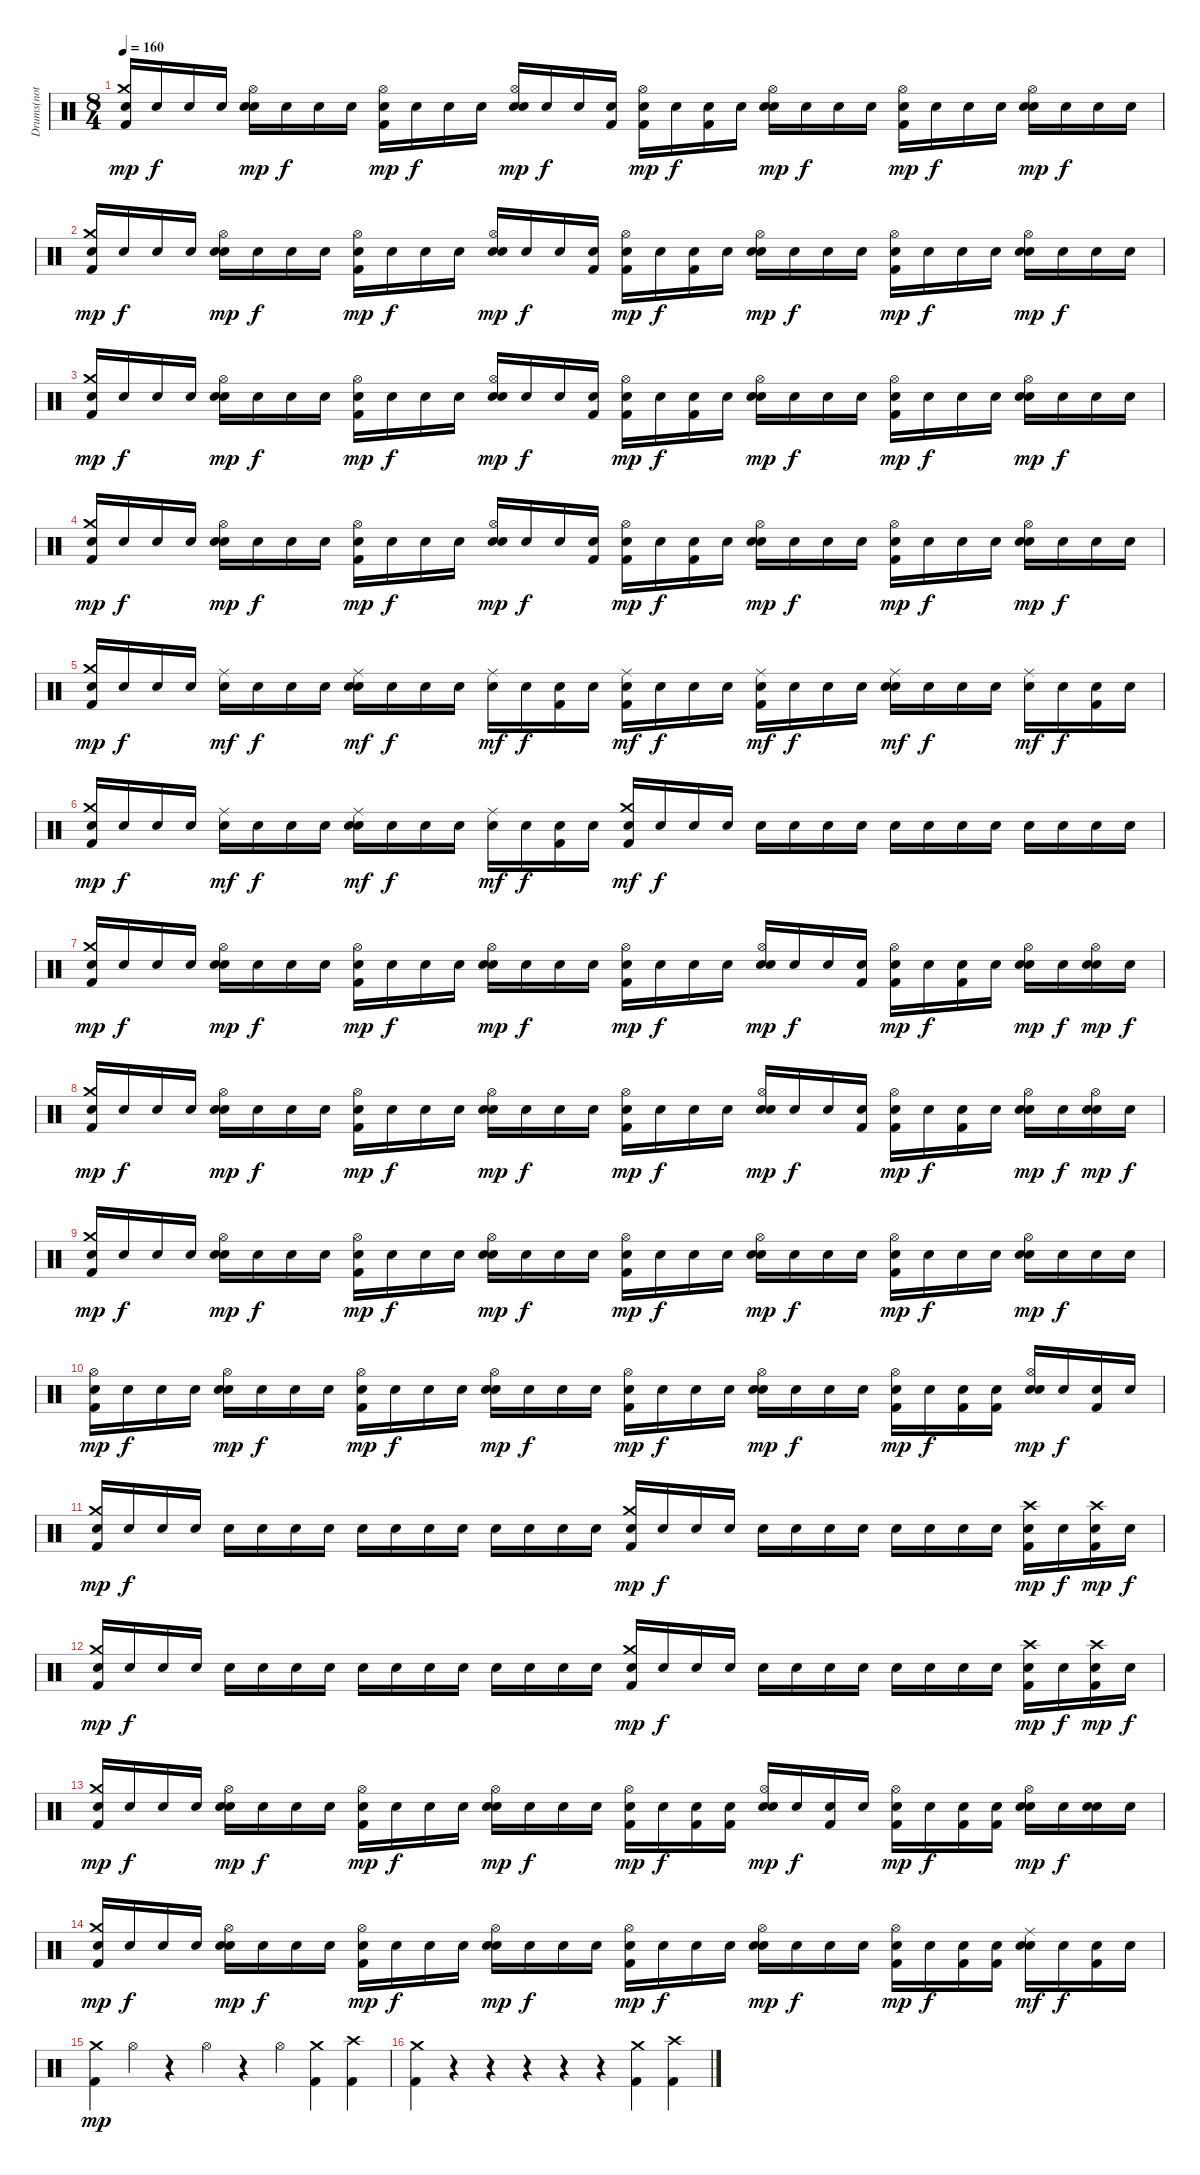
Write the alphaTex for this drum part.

\track ("Drums(not correct)" "Drums(not ") {instrument percussion}
\staff {score}
\articulation defaults
\ts (8 4)
\tempo 160
\clef neutral
\ks c
("Snare (hit)"{x} "Crash medium (hit)" "Kick (hit) 2").16{dy mp} "Snare (hit)"{x}.16{dy f} "Snare (hit)"{x}.16 "Snare (hit)"{x}.16 ("Snare (hit)"{x} "Hi-Hat (open)" "Electric Snare (hit)").16{dy mp} "Snare (hit)"{x}.16{dy f} "Snare (hit)"{x}.16 "Snare (hit)"{x}.16 ("Snare (hit)"{x} "Hi-Hat (open)" "Kick (hit) 2").16{dy mp} "Snare (hit)"{x}.16{dy f} "Snare (hit)"{x}.16 "Snare (hit)"{x}.16 ("Snare (hit)"{x} "Hi-Hat (open)" "Electric Snare (hit)").16{dy mp} "Snare (hit)"{x}.16{dy f} "Snare (hit)"{x}.16 ("Snare (hit)"{x} "Kick (hit) 2").16 ("Snare (hit)"{x} "Hi-Hat (open)" "Kick (hit) 2").16{dy mp} "Snare (hit)"{x}.16{dy f} ("Snare (hit)"{x} "Kick (hit) 2").16 "Snare (hit)"{x}.16 ("Snare (hit)"{x} "Hi-Hat (open)" "Electric Snare (hit)").16{dy mp} "Snare (hit)"{x}.16{dy f} "Snare (hit)"{x}.16 "Snare (hit)"{x}.16 ("Snare (hit)"{x} "Hi-Hat (open)" "Kick (hit) 2").16{dy mp} "Snare (hit)"{x}.16{dy f} "Snare (hit)"{x}.16 "Snare (hit)"{x}.16 ("Snare (hit)"{x} "Hi-Hat (open)" "Electric Snare (hit)").16{dy mp} "Snare (hit)"{x}.16{dy f} "Snare (hit)"{x}.16 "Snare (hit)"{x}.16 |
("Snare (hit)"{x} "Crash medium (hit)" "Kick (hit) 2").16{dy mp} "Snare (hit)"{x}.16{dy f} "Snare (hit)"{x}.16 "Snare (hit)"{x}.16 ("Snare (hit)"{x} "Hi-Hat (open)" "Electric Snare (hit)").16{dy mp} "Snare (hit)"{x}.16{dy f} "Snare (hit)"{x}.16 "Snare (hit)"{x}.16 ("Snare (hit)"{x} "Hi-Hat (open)" "Kick (hit) 2").16{dy mp} "Snare (hit)"{x}.16{dy f} "Snare (hit)"{x}.16 "Snare (hit)"{x}.16 ("Snare (hit)"{x} "Hi-Hat (open)" "Electric Snare (hit)").16{dy mp} "Snare (hit)"{x}.16{dy f} "Snare (hit)"{x}.16 ("Snare (hit)"{x} "Kick (hit) 2").16 ("Snare (hit)"{x} "Hi-Hat (open)" "Kick (hit) 2").16{dy mp} "Snare (hit)"{x}.16{dy f} ("Snare (hit)"{x} "Kick (hit) 2").16 "Snare (hit)"{x}.16 ("Snare (hit)"{x} "Hi-Hat (open)" "Electric Snare (hit)").16{dy mp} "Snare (hit)"{x}.16{dy f} "Snare (hit)"{x}.16 "Snare (hit)"{x}.16 ("Snare (hit)"{x} "Hi-Hat (open)" "Kick (hit) 2").16{dy mp} "Snare (hit)"{x}.16{dy f} "Snare (hit)"{x}.16 "Snare (hit)"{x}.16 ("Snare (hit)"{x} "Hi-Hat (open)" "Electric Snare (hit)").16{dy mp} "Snare (hit)"{x}.16{dy f} "Snare (hit)"{x}.16 "Snare (hit)"{x}.16 |
("Snare (hit)"{x} "Crash medium (hit)" "Kick (hit) 2").16{dy mp} "Snare (hit)"{x}.16{dy f} "Snare (hit)"{x}.16 "Snare (hit)"{x}.16 ("Snare (hit)"{x} "Hi-Hat (open)" "Electric Snare (hit)").16{dy mp} "Snare (hit)"{x}.16{dy f} "Snare (hit)"{x}.16 "Snare (hit)"{x}.16 ("Snare (hit)"{x} "Hi-Hat (open)" "Kick (hit) 2").16{dy mp} "Snare (hit)"{x}.16{dy f} "Snare (hit)"{x}.16 "Snare (hit)"{x}.16 ("Snare (hit)"{x} "Hi-Hat (open)" "Electric Snare (hit)").16{dy mp} "Snare (hit)"{x}.16{dy f} "Snare (hit)"{x}.16 ("Snare (hit)"{x} "Kick (hit) 2").16 ("Snare (hit)"{x} "Hi-Hat (open)" "Kick (hit) 2").16{dy mp} "Snare (hit)"{x}.16{dy f} ("Snare (hit)"{x} "Kick (hit) 2").16 "Snare (hit)"{x}.16 ("Snare (hit)"{x} "Hi-Hat (open)" "Electric Snare (hit)").16{dy mp} "Snare (hit)"{x}.16{dy f} "Snare (hit)"{x}.16 "Snare (hit)"{x}.16 ("Snare (hit)"{x} "Hi-Hat (open)" "Kick (hit) 2").16{dy mp} "Snare (hit)"{x}.16{dy f} "Snare (hit)"{x}.16 "Snare (hit)"{x}.16 ("Snare (hit)"{x} "Hi-Hat (open)" "Electric Snare (hit)").16{dy mp} "Snare (hit)"{x}.16{dy f} "Snare (hit)"{x}.16 "Snare (hit)"{x}.16 |
("Snare (hit)"{x} "Crash medium (hit)" "Kick (hit) 2").16{dy mp} "Snare (hit)"{x}.16{dy f} "Snare (hit)"{x}.16 "Snare (hit)"{x}.16 ("Snare (hit)"{x} "Hi-Hat (open)" "Electric Snare (hit)").16{dy mp} "Snare (hit)"{x}.16{dy f} "Snare (hit)"{x}.16 "Snare (hit)"{x}.16 ("Snare (hit)"{x} "Hi-Hat (open)" "Kick (hit) 2").16{dy mp} "Snare (hit)"{x}.16{dy f} "Snare (hit)"{x}.16 "Snare (hit)"{x}.16 ("Snare (hit)"{x} "Hi-Hat (open)" "Electric Snare (hit)").16{dy mp} "Snare (hit)"{x}.16{dy f} "Snare (hit)"{x}.16 ("Snare (hit)"{x} "Kick (hit) 2").16 ("Snare (hit)"{x} "Hi-Hat (open)" "Kick (hit) 2").16{dy mp} "Snare (hit)"{x}.16{dy f} ("Snare (hit)"{x} "Kick (hit) 2").16 "Snare (hit)"{x}.16 ("Snare (hit)"{x} "Hi-Hat (open)" "Electric Snare (hit)").16{dy mp} "Snare (hit)"{x}.16{dy f} "Snare (hit)"{x}.16 "Snare (hit)"{x}.16 ("Snare (hit)"{x} "Hi-Hat (open)" "Kick (hit) 2").16{dy mp} "Snare (hit)"{x}.16{dy f} "Snare (hit)"{x}.16 "Snare (hit)"{x}.16 ("Snare (hit)"{x} "Hi-Hat (open)" "Electric Snare (hit)").16{dy mp} "Snare (hit)"{x}.16{dy f} "Snare (hit)"{x}.16 "Snare (hit)"{x}.16 |
("Snare (hit)"{x} "Crash medium (hit)" "Kick (hit) 2").16{dy mp} "Snare (hit)"{x}.16{dy f} "Snare (hit)"{x}.16 "Snare (hit)"{x}.16 ("Snare (hit)"{x} "Ride (middle)").16{dy mf} "Snare (hit)"{x}.16{dy f} "Snare (hit)"{x}.16 "Snare (hit)"{x}.16 ("Snare (hit)"{x} "Ride (middle)" "Electric Snare (hit)").16{dy mf} "Snare (hit)"{x}.16{dy f} "Snare (hit)"{x}.16 "Snare (hit)"{x}.16 ("Snare (hit)"{x} "Ride (middle)").16{dy mf} "Snare (hit)"{x}.16{dy f} ("Snare (hit)"{x} "Kick (hit) 2").16 "Snare (hit)"{x}.16 ("Snare (hit)"{x} "Ride (middle)" "Kick (hit) 2").16{dy mf} "Snare (hit)"{x}.16{dy f} "Snare (hit)"{x}.16 "Snare (hit)"{x}.16 ("Snare (hit)"{x} "Ride (middle)" "Kick (hit) 2").16{dy mf} "Snare (hit)"{x}.16{dy f} "Snare (hit)"{x}.16 "Snare (hit)"{x}.16 ("Snare (hit)"{x} "Ride (middle)" "Electric Snare (hit)").16{dy mf} "Snare (hit)"{x}.16{dy f} "Snare (hit)"{x}.16 "Snare (hit)"{x}.16 ("Snare (hit)"{x} "Ride (middle)").16{dy mf} "Snare (hit)"{x}.16{dy f} ("Snare (hit)"{x} "Kick (hit) 2").16 "Snare (hit)"{x}.16 |
("Snare (hit)"{x} "Crash medium (hit)" "Kick (hit) 2").16{dy mp} "Snare (hit)"{x}.16{dy f} "Snare (hit)"{x}.16 "Snare (hit)"{x}.16 ("Snare (hit)"{x} "Ride (middle)").16{dy mf} "Snare (hit)"{x}.16{dy f} "Snare (hit)"{x}.16 "Snare (hit)"{x}.16 ("Snare (hit)"{x} "Ride (middle)" "Electric Snare (hit)").16{dy mf} "Snare (hit)"{x}.16{dy f} "Snare (hit)"{x}.16 "Snare (hit)"{x}.16 ("Snare (hit)"{x} "Ride (middle)").16{dy mf} "Snare (hit)"{x}.16{dy f} ("Snare (hit)"{x} "Kick (hit) 2").16 "Snare (hit)"{x}.16 ("Snare (hit)"{x} "Crash medium (hit)" "Kick (hit) 2").16{dy mf} "Snare (hit)"{x}.16{dy f} "Snare (hit)"{x}.16 "Snare (hit)"{x}.16 "Snare (hit)"{x}.16 "Snare (hit)"{x}.16 "Snare (hit)"{x}.16 "Snare (hit)"{x}.16 "Snare (hit)"{x}.16 "Snare (hit)"{x}.16 "Snare (hit)"{x}.16 "Snare (hit)"{x}.16 "Snare (hit)"{x}.16 "Snare (hit)"{x}.16 "Snare (hit)"{x}.16 "Snare (hit)"{x}.16 |
("Snare (hit)"{x} "Crash medium (hit)" "Kick (hit) 2").16{dy mp} "Snare (hit)"{x}.16{dy f} "Snare (hit)"{x}.16 "Snare (hit)"{x}.16 ("Snare (hit)"{x} "Hi-Hat (open)" "Electric Snare (hit)").16{dy mp} "Snare (hit)"{x}.16{dy f} "Snare (hit)"{x}.16 "Snare (hit)"{x}.16 ("Snare (hit)"{x} "Hi-Hat (open)" "Kick (hit) 2").16{dy mp} "Snare (hit)"{x}.16{dy f} "Snare (hit)"{x}.16 "Snare (hit)"{x}.16 ("Snare (hit)"{x} "Hi-Hat (open)" "Electric Snare (hit)").16{dy mp} "Snare (hit)"{x}.16{dy f} "Snare (hit)"{x}.16 "Snare (hit)"{x}.16 ("Snare (hit)"{x} "Hi-Hat (open)" "Kick (hit) 2").16{dy mp} "Snare (hit)"{x}.16{dy f} "Snare (hit)"{x}.16 "Snare (hit)"{x}.16 ("Snare (hit)"{x} "Hi-Hat (open)" "Electric Snare (hit)").16{dy mp} "Snare (hit)"{x}.16{dy f} "Snare (hit)"{x}.16 ("Snare (hit)"{x} "Kick (hit) 2").16 ("Snare (hit)"{x} "Hi-Hat (open)" "Kick (hit) 2").16{dy mp} "Snare (hit)"{x}.16{dy f} ("Snare (hit)"{x} "Kick (hit) 2").16 "Snare (hit)"{x}.16 ("Snare (hit)"{x} "Hi-Hat (open)" "Electric Snare (hit)").16{dy mp} "Snare (hit)"{x}.16{dy f} ("Snare (hit)"{x} "Hi-Hat (open)" "Electric Snare (hit)").16{dy mp} "Snare (hit)"{x}.16{dy f} |
("Snare (hit)"{x} "Crash medium (hit)" "Kick (hit) 2").16{dy mp} "Snare (hit)"{x}.16{dy f} "Snare (hit)"{x}.16 "Snare (hit)"{x}.16 ("Snare (hit)"{x} "Hi-Hat (open)" "Electric Snare (hit)").16{dy mp} "Snare (hit)"{x}.16{dy f} "Snare (hit)"{x}.16 "Snare (hit)"{x}.16 ("Snare (hit)"{x} "Hi-Hat (open)" "Kick (hit) 2").16{dy mp} "Snare (hit)"{x}.16{dy f} "Snare (hit)"{x}.16 "Snare (hit)"{x}.16 ("Snare (hit)"{x} "Hi-Hat (open)" "Electric Snare (hit)").16{dy mp} "Snare (hit)"{x}.16{dy f} "Snare (hit)"{x}.16 "Snare (hit)"{x}.16 ("Snare (hit)"{x} "Hi-Hat (open)" "Kick (hit) 2").16{dy mp} "Snare (hit)"{x}.16{dy f} "Snare (hit)"{x}.16 "Snare (hit)"{x}.16 ("Snare (hit)"{x} "Hi-Hat (open)" "Electric Snare (hit)").16{dy mp} "Snare (hit)"{x}.16{dy f} "Snare (hit)"{x}.16 ("Snare (hit)"{x} "Kick (hit) 2").16 ("Snare (hit)"{x} "Hi-Hat (open)" "Kick (hit) 2").16{dy mp} "Snare (hit)"{x}.16{dy f} ("Snare (hit)"{x} "Kick (hit) 2").16 "Snare (hit)"{x}.16 ("Snare (hit)"{x} "Hi-Hat (open)" "Electric Snare (hit)").16{dy mp} "Snare (hit)"{x}.16{dy f} ("Snare (hit)"{x} "Hi-Hat (open)" "Electric Snare (hit)").16{dy mp} "Snare (hit)"{x}.16{dy f} |
("Snare (hit)"{x} "Crash medium (hit)" "Kick (hit) 2").16{dy mp} "Snare (hit)"{x}.16{dy f} "Snare (hit)"{x}.16 "Snare (hit)"{x}.16 ("Snare (hit)"{x} "Hi-Hat (open)" "Electric Snare (hit)").16{dy mp} "Snare (hit)"{x}.16{dy f} "Snare (hit)"{x}.16 "Snare (hit)"{x}.16 ("Snare (hit)"{x} "Hi-Hat (open)" "Kick (hit) 2").16{dy mp} "Snare (hit)"{x}.16{dy f} "Snare (hit)"{x}.16 "Snare (hit)"{x}.16 ("Snare (hit)"{x} "Hi-Hat (open)" "Electric Snare (hit)").16{dy mp} "Snare (hit)"{x}.16{dy f} "Snare (hit)"{x}.16 "Snare (hit)"{x}.16 ("Snare (hit)"{x} "Hi-Hat (open)" "Kick (hit) 2").16{dy mp} "Snare (hit)"{x}.16{dy f} "Snare (hit)"{x}.16 "Snare (hit)"{x}.16 ("Snare (hit)"{x} "Hi-Hat (open)" "Electric Snare (hit)").16{dy mp} "Snare (hit)"{x}.16{dy f} "Snare (hit)"{x}.16 "Snare (hit)"{x}.16 ("Snare (hit)"{x} "Hi-Hat (open)" "Kick (hit) 2").16{dy mp} "Snare (hit)"{x}.16{dy f} "Snare (hit)"{x}.16 "Snare (hit)"{x}.16 ("Snare (hit)"{x} "Hi-Hat (open)" "Electric Snare (hit)").16{dy mp} "Snare (hit)"{x}.16{dy f} "Snare (hit)"{x}.16 "Snare (hit)"{x}.16 |
("Snare (hit)"{x} "Hi-Hat (open)" "Kick (hit) 2").16{dy mp} "Snare (hit)"{x}.16{dy f} "Snare (hit)"{x}.16 "Snare (hit)"{x}.16 ("Snare (hit)"{x} "Hi-Hat (open)" "Electric Snare (hit)").16{dy mp} "Snare (hit)"{x}.16{dy f} "Snare (hit)"{x}.16 "Snare (hit)"{x}.16 ("Snare (hit)"{x} "Hi-Hat (open)" "Kick (hit) 2").16{dy mp} "Snare (hit)"{x}.16{dy f} "Snare (hit)"{x}.16 "Snare (hit)"{x}.16 ("Snare (hit)"{x} "Hi-Hat (open)" "Electric Snare (hit)").16{dy mp} "Snare (hit)"{x}.16{dy f} "Snare (hit)"{x}.16 "Snare (hit)"{x}.16 ("Snare (hit)"{x} "Hi-Hat (open)" "Kick (hit) 2").16{dy mp} "Snare (hit)"{x}.16{dy f} "Snare (hit)"{x}.16 "Snare (hit)"{x}.16 ("Snare (hit)"{x} "Hi-Hat (open)" "Electric Snare (hit)").16{dy mp} "Snare (hit)"{x}.16{dy f} "Snare (hit)"{x}.16 "Snare (hit)"{x}.16 ("Snare (hit)"{x} "Hi-Hat (open)" "Kick (hit) 2").16{dy mp} "Snare (hit)"{x}.16{dy f} ("Snare (hit)"{x} "Kick (hit) 2").16 ("Snare (hit)"{x} "Kick (hit) 2").16 ("Snare (hit)"{x} "Hi-Hat (open)" "Electric Snare (hit)").16{dy mp} "Snare (hit)"{x}.16{dy f} ("Snare (hit)"{x} "Kick (hit) 2").16 "Snare (hit)"{x}.16 |
("Snare (hit)"{x} "Crash medium (hit)" "Kick (hit) 2").16{dy mp} "Snare (hit)"{x}.16{dy f} "Snare (hit)"{x}.16 "Snare (hit)"{x}.16 "Snare (hit)"{x}.16 "Snare (hit)"{x}.16 "Snare (hit)"{x}.16 "Snare (hit)"{x}.16 "Snare (hit)"{x}.16 "Snare (hit)"{x}.16 "Snare (hit)"{x}.16 "Snare (hit)"{x}.16 "Snare (hit)"{x}.16 "Snare (hit)"{x}.16 "Snare (hit)"{x}.16 "Snare (hit)"{x}.16 ("Snare (hit)"{x} "Crash medium (hit)" "Kick (hit) 2").16{dy mp} "Snare (hit)"{x}.16{dy f} "Snare (hit)"{x}.16 "Snare (hit)"{x}.16 "Snare (hit)"{x}.16 "Snare (hit)"{x}.16 "Snare (hit)"{x}.16 "Snare (hit)"{x}.16 "Snare (hit)"{x}.16 "Snare (hit)"{x}.16 "Snare (hit)"{x}.16 "Snare (hit)"{x}.16 ("Snare (hit)"{x} "Crash high (hit)" "Kick (hit) 2").16{dy mp} "Snare (hit)"{x}.16{dy f} ("Snare (hit)"{x} "Crash high (hit)" "Kick (hit) 2").16{dy mp} "Snare (hit)"{x}.16{dy f} |
("Snare (hit)"{x} "Crash medium (hit)" "Kick (hit) 2").16{dy mp} "Snare (hit)"{x}.16{dy f} "Snare (hit)"{x}.16 "Snare (hit)"{x}.16 "Snare (hit)"{x}.16 "Snare (hit)"{x}.16 "Snare (hit)"{x}.16 "Snare (hit)"{x}.16 "Snare (hit)"{x}.16 "Snare (hit)"{x}.16 "Snare (hit)"{x}.16 "Snare (hit)"{x}.16 "Snare (hit)"{x}.16 "Snare (hit)"{x}.16 "Snare (hit)"{x}.16 "Snare (hit)"{x}.16 ("Snare (hit)"{x} "Crash medium (hit)" "Kick (hit) 2").16{dy mp} "Snare (hit)"{x}.16{dy f} "Snare (hit)"{x}.16 "Snare (hit)"{x}.16 "Snare (hit)"{x}.16 "Snare (hit)"{x}.16 "Snare (hit)"{x}.16 "Snare (hit)"{x}.16 "Snare (hit)"{x}.16 "Snare (hit)"{x}.16 "Snare (hit)"{x}.16 "Snare (hit)"{x}.16 ("Snare (hit)"{x} "Crash high (hit)" "Kick (hit) 2").16{dy mp} "Snare (hit)"{x}.16{dy f} ("Snare (hit)"{x} "Crash high (hit)" "Kick (hit) 2").16{dy mp} "Snare (hit)"{x}.16{dy f} |
("Snare (hit)"{x} "Crash medium (hit)" "Kick (hit) 2").16{dy mp} "Snare (hit)"{x}.16{dy f} "Snare (hit)"{x}.16 "Snare (hit)"{x}.16 ("Snare (hit)"{x} "Hi-Hat (open)" "Electric Snare (hit)").16{dy mp} "Snare (hit)"{x}.16{dy f} "Snare (hit)"{x}.16 "Snare (hit)"{x}.16 ("Snare (hit)"{x} "Hi-Hat (open)" "Kick (hit) 2").16{dy mp} "Snare (hit)"{x}.16{dy f} "Snare (hit)"{x}.16 "Snare (hit)"{x}.16 ("Snare (hit)"{x} "Hi-Hat (open)" "Electric Snare (hit)").16{dy mp} "Snare (hit)"{x}.16{dy f} "Snare (hit)"{x}.16 "Snare (hit)"{x}.16 ("Snare (hit)"{x} "Hi-Hat (open)" "Kick (hit) 2").16{dy mp} "Snare (hit)"{x}.16{dy f} ("Snare (hit)"{x} "Kick (hit) 2").16 ("Snare (hit)"{x} "Kick (hit) 2").16 ("Snare (hit)"{x} "Hi-Hat (open)" "Electric Snare (hit)").16{dy mp} "Snare (hit)"{x}.16{dy f} ("Snare (hit)"{x} "Kick (hit) 2").16 "Snare (hit)"{x}.16 ("Snare (hit)"{x} "Hi-Hat (open)" "Kick (hit) 2").16{dy mp} "Snare (hit)"{x}.16{dy f} ("Snare (hit)"{x} "Kick (hit) 2").16 ("Snare (hit)"{x} "Kick (hit) 2").16 ("Snare (hit)"{x} "Hi-Hat (open)" "Electric Snare (hit)").16{dy mp} "Snare (hit)"{x}.16{dy f} ("Snare (hit)"{x} "Electric Snare (hit)").16 "Snare (hit)"{x}.16 |
("Snare (hit)"{x} "Crash medium (hit)" "Kick (hit) 2").16{dy mp} "Snare (hit)"{x}.16{dy f} "Snare (hit)"{x}.16 "Snare (hit)"{x}.16 ("Snare (hit)"{x} "Hi-Hat (open)" "Electric Snare (hit)").16{dy mp} "Snare (hit)"{x}.16{dy f} "Snare (hit)"{x}.16 "Snare (hit)"{x}.16 ("Snare (hit)"{x} "Hi-Hat (open)" "Kick (hit) 2").16{dy mp} "Snare (hit)"{x}.16{dy f} "Snare (hit)"{x}.16 "Snare (hit)"{x}.16 ("Snare (hit)"{x} "Hi-Hat (open)" "Electric Snare (hit)").16{dy mp} "Snare (hit)"{x}.16{dy f} "Snare (hit)"{x}.16 "Snare (hit)"{x}.16 ("Snare (hit)"{x} "Hi-Hat (open)" "Kick (hit) 2").16{dy mp} "Snare (hit)"{x}.16{dy f} "Snare (hit)"{x}.16 "Snare (hit)"{x}.16 ("Snare (hit)"{x} "Hi-Hat (open)" "Electric Snare (hit)").16{dy mp} "Snare (hit)"{x}.16{dy f} "Snare (hit)"{x}.16 "Snare (hit)"{x}.16 ("Snare (hit)"{x} "Hi-Hat (open)" "Kick (hit) 2").16{dy mp} "Snare (hit)"{x}.16{dy f} ("Snare (hit)"{x} "Kick (hit) 2").16 ("Snare (hit)"{x} "Kick (hit) 2").16 ("Snare (hit)"{x} "Ride (middle)" "Electric Snare (hit)").16{dy mf} "Snare (hit)"{x}.16{dy f} ("Snare (hit)"{x} "Kick (hit) 2").16 "Snare (hit)"{x}.16 |
("Crash medium (hit)" "Kick (hit) 2").4{dy mp} "Hi-Hat (open)".4 r.4 "Hi-Hat (open)".4 r.4 "Hi-Hat (open)".4 ("Crash medium (hit)" "Kick (hit) 2").4 ("Crash high (hit)" "Kick (hit) 2").4 |
("Crash medium (hit)" "Kick (hit) 2").4 r.4 r.4 r.4 r.4 r.4 ("Crash medium (hit)" "Kick (hit) 2").4 ("Crash high (hit)" "Kick (hit) 2").4
